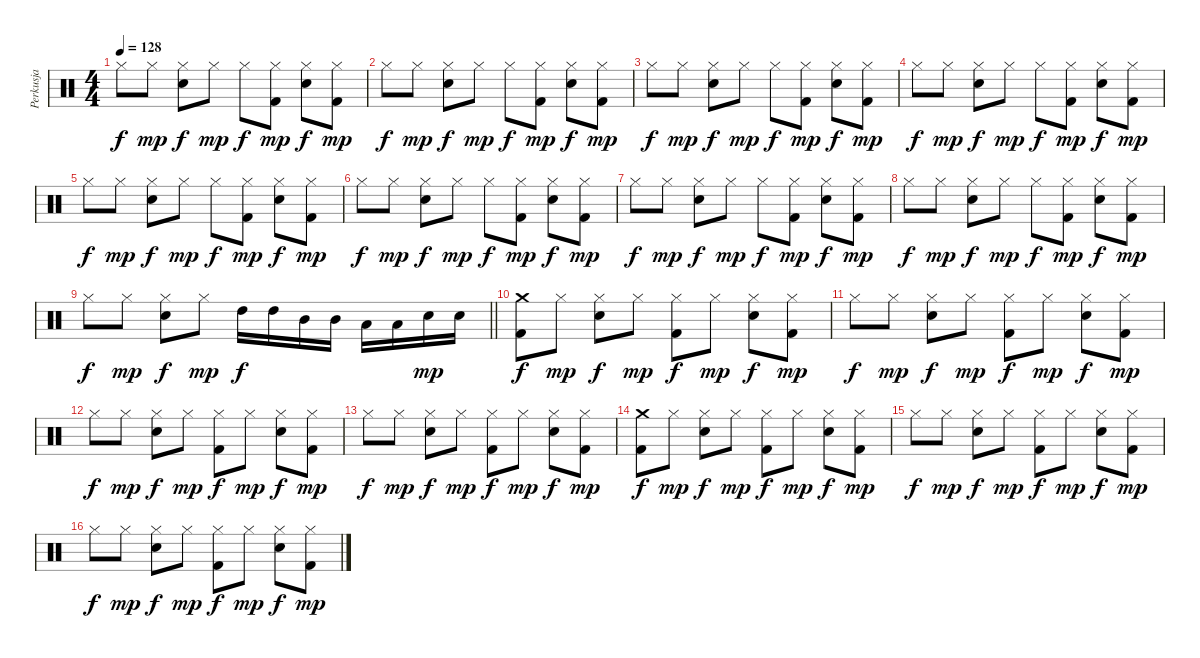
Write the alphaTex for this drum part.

\track ("Perkusja" "Perkusja") {instrument percussion}
\staff {score}
\articulation defaults
\ts (4 4)
\tempo 128
\clef neutral
\ks c "Hi-Hat (closed)".8{dy f} "Hi-Hat (closed)".8{dy mp}
("Hi-Hat (closed)" "Electric Snare (hit)").8{dy f} "Hi-Hat (closed)".8{dy mp} "Hi-Hat (closed)".8{dy f} ("Hi-Hat (closed)" "Kick (hit) 2").8{dy mp} ("Hi-Hat (closed)" "Electric Snare (hit)").8{dy f} ("Hi-Hat (closed)" "Kick (hit) 2").8{dy mp} |
"Hi-Hat (closed)".8{dy f} "Hi-Hat (closed)".8{dy mp} ("Hi-Hat (closed)" "Electric Snare (hit)").8{dy f} "Hi-Hat (closed)".8{dy mp} "Hi-Hat (closed)".8{dy f} ("Hi-Hat (closed)" "Kick (hit) 2").8{dy mp} ("Hi-Hat (closed)" "Electric Snare (hit)").8{dy f} ("Hi-Hat (closed)" "Kick (hit) 2").8{dy mp} |
"Hi-Hat (closed)".8{dy f} "Hi-Hat (closed)".8{dy mp} ("Hi-Hat (closed)" "Electric Snare (hit)").8{dy f} "Hi-Hat (closed)".8{dy mp} "Hi-Hat (closed)".8{dy f} ("Hi-Hat (closed)" "Kick (hit) 2").8{dy mp} ("Hi-Hat (closed)" "Electric Snare (hit)").8{dy f} ("Hi-Hat (closed)" "Kick (hit) 2").8{dy mp} |
"Hi-Hat (closed)".8{dy f} "Hi-Hat (closed)".8{dy mp} ("Hi-Hat (closed)" "Electric Snare (hit)").8{dy f} "Hi-Hat (closed)".8{dy mp} "Hi-Hat (closed)".8{dy f} ("Hi-Hat (closed)" "Kick (hit) 2").8{dy mp} ("Hi-Hat (closed)" "Electric Snare (hit)").8{dy f} ("Hi-Hat (closed)" "Kick (hit) 2").8{dy mp} |
"Hi-Hat (closed)".8{dy f} "Hi-Hat (closed)".8{dy mp} ("Hi-Hat (closed)" "Electric Snare (hit)").8{dy f} "Hi-Hat (closed)".8{dy mp} "Hi-Hat (closed)".8{dy f} ("Hi-Hat (closed)" "Kick (hit) 2").8{dy mp} ("Hi-Hat (closed)" "Electric Snare (hit)").8{dy f} ("Hi-Hat (closed)" "Kick (hit) 2").8{dy mp} |
"Hi-Hat (closed)".8{dy f} "Hi-Hat (closed)".8{dy mp} ("Hi-Hat (closed)" "Electric Snare (hit)").8{dy f} "Hi-Hat (closed)".8{dy mp} "Hi-Hat (closed)".8{dy f} ("Hi-Hat (closed)" "Kick (hit) 2").8{dy mp} ("Hi-Hat (closed)" "Electric Snare (hit)").8{dy f} ("Hi-Hat (closed)" "Kick (hit) 2").8{dy mp} |
"Hi-Hat (closed)".8{dy f} "Hi-Hat (closed)".8{dy mp} ("Hi-Hat (closed)" "Electric Snare (hit)").8{dy f} "Hi-Hat (closed)".8{dy mp} "Hi-Hat (closed)".8{dy f} ("Hi-Hat (closed)" "Kick (hit) 2").8{dy mp} ("Hi-Hat (closed)" "Electric Snare (hit)").8{dy f} ("Hi-Hat (closed)" "Kick (hit) 2").8{dy mp} |
"Hi-Hat (closed)".8{dy f} "Hi-Hat (closed)".8{dy mp} ("Hi-Hat (closed)" "Electric Snare (hit)").8{dy f} "Hi-Hat (closed)".8{dy mp} "Hi-Hat (closed)".8{dy f} ("Hi-Hat (closed)" "Kick (hit) 2").8{dy mp} ("Hi-Hat (closed)" "Electric Snare (hit)").8{dy f} ("Hi-Hat (closed)" "Kick (hit) 2").8{dy mp} |
\barLineRight lightlight "Hi-Hat (closed)".8{dy f} "Hi-Hat (closed)".8{dy mp}
("Hi-Hat (closed)" "Electric Snare (hit)").8{dy f} "Hi-Hat (closed)".8{dy mp} "High Tom (hit)".16{dy f} "High Tom (hit)".16 "Mid Tom (hit)".16 "Mid Tom (hit)".16 "Low Tom (hit)".16 "Low Tom (hit)".16 "Electric Snare (hit)".16{dy mp} "Electric Snare (hit)".16 |
("Crash medium (hit)" "Kick (hit) 2").8{dy f} "Hi-Hat (closed)".8{dy mp} ("Hi-Hat (closed)" "Electric Snare (hit)").8{dy f} "Hi-Hat (closed)".8{dy mp} ("Hi-Hat (closed)" "Kick (hit) 2").8{dy f} "Hi-Hat (closed)".8{dy mp} ("Hi-Hat (closed)" "Electric Snare (hit)").8{dy f} ("Hi-Hat (closed)" "Kick (hit) 2").8{dy mp} |
"Hi-Hat (closed)".8{dy f} "Hi-Hat (closed)".8{dy mp} ("Hi-Hat (closed)" "Electric Snare (hit)").8{dy f} "Hi-Hat (closed)".8{dy mp} ("Hi-Hat (closed)" "Kick (hit) 2").8{dy f} "Hi-Hat (closed)".8{dy mp} ("Hi-Hat (closed)" "Electric Snare (hit)").8{dy f} ("Hi-Hat (closed)" "Kick (hit) 2").8{dy mp} |
"Hi-Hat (closed)".8{dy f} "Hi-Hat (closed)".8{dy mp} ("Hi-Hat (closed)" "Electric Snare (hit)").8{dy f} "Hi-Hat (closed)".8{dy mp} ("Hi-Hat (closed)" "Kick (hit) 2").8{dy f} "Hi-Hat (closed)".8{dy mp} ("Hi-Hat (closed)" "Electric Snare (hit)").8{dy f} ("Hi-Hat (closed)" "Kick (hit) 2").8{dy mp} |
"Hi-Hat (closed)".8{dy f} "Hi-Hat (closed)".8{dy mp} ("Hi-Hat (closed)" "Electric Snare (hit)").8{dy f} "Hi-Hat (closed)".8{dy mp} ("Hi-Hat (closed)" "Kick (hit) 2").8{dy f} "Hi-Hat (closed)".8{dy mp} ("Hi-Hat (closed)" "Electric Snare (hit)").8{dy f} ("Hi-Hat (closed)" "Kick (hit) 2").8{dy mp} |
("Crash medium (hit)" "Kick (hit) 2").8{dy f} "Hi-Hat (closed)".8{dy mp} ("Hi-Hat (closed)" "Electric Snare (hit)").8{dy f} "Hi-Hat (closed)".8{dy mp} ("Hi-Hat (closed)" "Kick (hit) 2").8{dy f} "Hi-Hat (closed)".8{dy mp} ("Hi-Hat (closed)" "Electric Snare (hit)").8{dy f} ("Hi-Hat (closed)" "Kick (hit) 2").8{dy mp} |
"Hi-Hat (closed)".8{dy f} "Hi-Hat (closed)".8{dy mp} ("Hi-Hat (closed)" "Electric Snare (hit)").8{dy f} "Hi-Hat (closed)".8{dy mp} ("Hi-Hat (closed)" "Kick (hit) 2").8{dy f} "Hi-Hat (closed)".8{dy mp} ("Hi-Hat (closed)" "Electric Snare (hit)").8{dy f} ("Hi-Hat (closed)" "Kick (hit) 2").8{dy mp} |
"Hi-Hat (closed)".8{dy f} "Hi-Hat (closed)".8{dy mp} ("Hi-Hat (closed)" "Electric Snare (hit)").8{dy f} "Hi-Hat (closed)".8{dy mp} ("Hi-Hat (closed)" "Kick (hit) 2").8{dy f} "Hi-Hat (closed)".8{dy mp} ("Hi-Hat (closed)" "Electric Snare (hit)").8{dy f} ("Hi-Hat (closed)" "Kick (hit) 2").8{dy mp}
